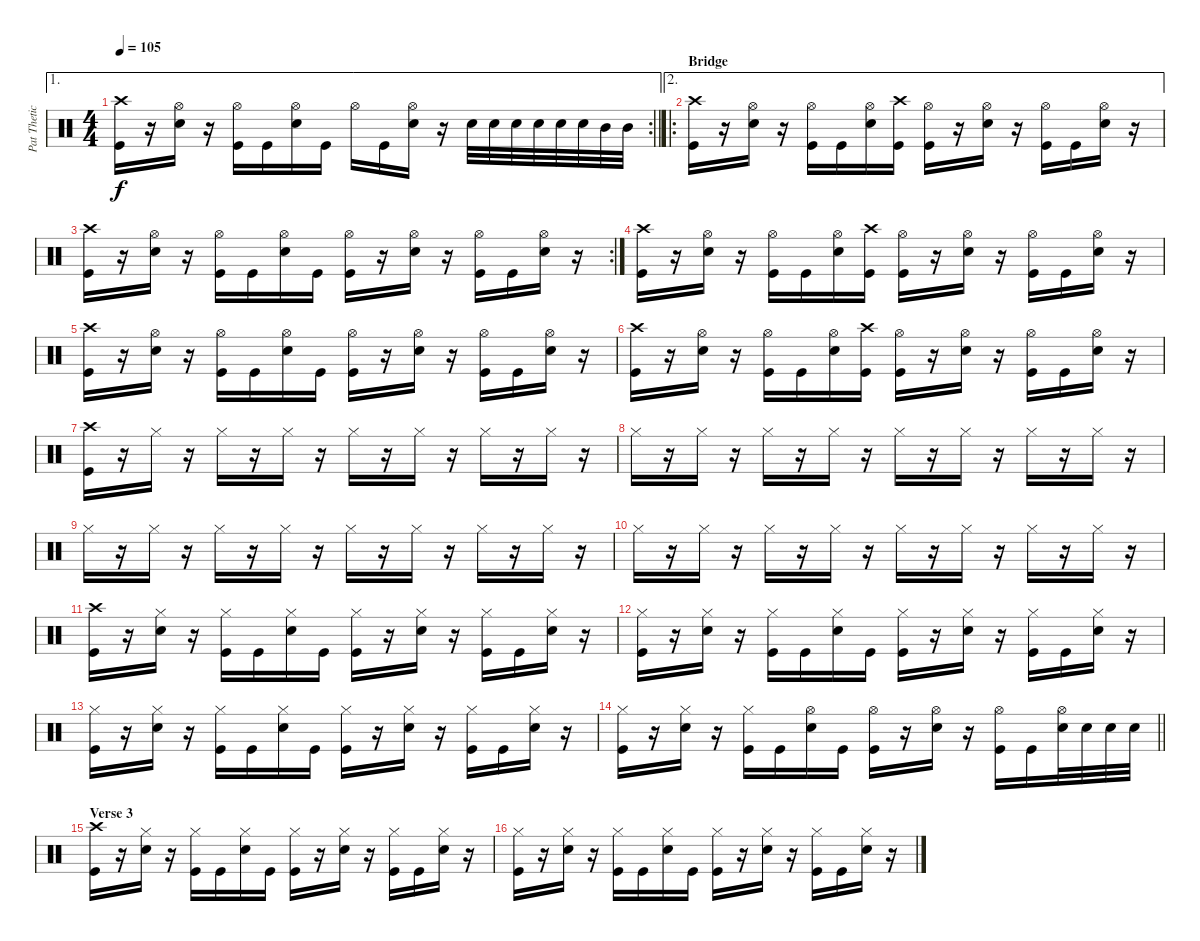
\track ("Pat Thetic" "Pat Thetic") {instrument percussion}
\staff {score}
\articulation defaults
\ae 1
\rc 2
\ts (4 4)
\tempo 105
\clef neutral
\barLineRight lightlight
\ks c
("Crash high (hit)" "Kick (hit)").16{dy f} r.16 ("Hi-Hat (open)" "Snare (hit) 2").16 r.16 ("Hi-Hat (open)" "Kick (hit)").16 "Kick (hit)".16 ("Hi-Hat (open)" "Snare (hit) 2").16 "Kick (hit)".16 "Hi-Hat (open)".16 "Kick (hit)".16 ("Hi-Hat (open)" "Snare (hit) 2").16 r.16 "Snare (hit) 2".32 "Snare (hit) 2".32 "Snare (hit) 2".32 "Electric Snare (hit)".32 "Electric Snare (hit)".32 "Electric Snare (hit)".32 "Mid Tom (hit)".32 "Mid Tom (hit)".32 |
\ae 2
\ro
\section ("" "Bridge")
("Crash high (hit)" "Kick (hit)").16 r.16 ("Hi-Hat (open)" "Snare (hit) 2").16 r.16 ("Hi-Hat (open)" "Kick (hit)").16 "Kick (hit)".16 ("Hi-Hat (open)" "Snare (hit) 2").16 ("Crash high (hit)" "Kick (hit)").16 ("Hi-Hat (open)" "Kick (hit)").16 r.16 ("Hi-Hat (open)" "Snare (hit) 2").16 r.16 ("Hi-Hat (open)" "Kick (hit)").16 "Kick (hit)".16 ("Hi-Hat (open)" "Snare (hit) 2").16 r.16 |
\rc 2
("Crash high (hit)" "Kick (hit)").16 r.16 ("Hi-Hat (open)" "Snare (hit) 2").16 r.16 ("Hi-Hat (open)" "Kick (hit)").16 "Kick (hit)".16 ("Hi-Hat (open)" "Snare (hit) 2").16 "Kick (hit)".16 ("Hi-Hat (open)" "Kick (hit)").16 r.16 ("Hi-Hat (open)" "Snare (hit) 2").16 r.16 ("Hi-Hat (open)" "Kick (hit)").16 "Kick (hit)".16 ("Hi-Hat (open)" "Snare (hit) 2").16 r.16 |
("Crash high (hit)" "Kick (hit)").16 r.16 ("Hi-Hat (open)" "Snare (hit) 2").16 r.16 ("Hi-Hat (open)" "Kick (hit)").16 "Kick (hit)".16 ("Hi-Hat (open)" "Snare (hit) 2").16 ("Crash high (hit)" "Kick (hit)").16 ("Hi-Hat (open)" "Kick (hit)").16 r.16 ("Hi-Hat (open)" "Snare (hit) 2").16 r.16 ("Hi-Hat (open)" "Kick (hit)").16 "Kick (hit)".16 ("Hi-Hat (open)" "Snare (hit) 2").16 r.16 |
("Crash high (hit)" "Kick (hit)").16 r.16 ("Hi-Hat (open)" "Snare (hit) 2").16 r.16 ("Hi-Hat (open)" "Kick (hit)").16 "Kick (hit)".16 ("Hi-Hat (open)" "Snare (hit) 2").16 "Kick (hit)".16 ("Hi-Hat (open)" "Kick (hit)").16 r.16 ("Hi-Hat (open)" "Snare (hit) 2").16 r.16 ("Hi-Hat (open)" "Kick (hit)").16 "Kick (hit)".16 ("Hi-Hat (open)" "Snare (hit) 2").16 r.16 |
("Crash high (hit)" "Kick (hit)").16 r.16 ("Hi-Hat (open)" "Snare (hit) 2").16 r.16 ("Hi-Hat (open)" "Kick (hit)").16 "Kick (hit)".16 ("Hi-Hat (open)" "Snare (hit) 2").16 ("Crash high (hit)" "Kick (hit)").16 ("Hi-Hat (open)" "Kick (hit)").16 r.16 ("Hi-Hat (open)" "Snare (hit) 2").16 r.16 ("Hi-Hat (open)" "Kick (hit)").16 "Kick (hit)".16 ("Hi-Hat (open)" "Snare (hit) 2").16 r.16 |
("Crash high (hit)" "Kick (hit)").16 r.16 "Hi-Hat (closed)".16 r.16 "Hi-Hat (closed)".16 r.16 "Hi-Hat (closed)".16 r.16 "Hi-Hat (closed)".16 r.16 "Hi-Hat (closed)".16 r.16 "Hi-Hat (closed)".16 r.16 "Hi-Hat (closed)".16 r.16 |
"Hi-Hat (closed)".16 r.16 "Hi-Hat (closed)".16 r.16 "Hi-Hat (closed)".16 r.16 "Hi-Hat (closed)".16 r.16 "Hi-Hat (closed)".16 r.16 "Hi-Hat (closed)".16 r.16 "Hi-Hat (closed)".16 r.16 "Hi-Hat (closed)".16 r.16 |
"Hi-Hat (closed)".16 r.16 "Hi-Hat (closed)".16 r.16 "Hi-Hat (closed)".16 r.16 "Hi-Hat (closed)".16 r.16 "Hi-Hat (closed)".16 r.16 "Hi-Hat (closed)".16 r.16 "Hi-Hat (closed)".16 r.16 "Hi-Hat (closed)".16 r.16 |
"Hi-Hat (closed)".16 r.16 "Hi-Hat (closed)".16 r.16 "Hi-Hat (closed)".16 r.16 "Hi-Hat (closed)".16 r.16 "Hi-Hat (closed)".16 r.16 "Hi-Hat (closed)".16 r.16 "Hi-Hat (closed)".16 r.16 "Hi-Hat (closed)".16 r.16 |
("Crash high (hit)" "Kick (hit)").16 r.16 ("Hi-Hat (closed)" "Snare (hit) 2").16 r.16 ("Hi-Hat (closed)" "Kick (hit)").16 "Kick (hit)".16 ("Hi-Hat (closed)" "Snare (hit) 2").16 "Kick (hit)".16 ("Hi-Hat (closed)" "Kick (hit)").16 r.16 ("Hi-Hat (closed)" "Snare (hit) 2").16 r.16 ("Hi-Hat (closed)" "Kick (hit)").16 "Kick (hit)".16 ("Hi-Hat (closed)" "Snare (hit) 2").16 r.16 |
("Hi-Hat (closed)" "Kick (hit)").16 r.16 ("Hi-Hat (closed)" "Snare (hit) 2").16 r.16 ("Hi-Hat (closed)" "Kick (hit)").16 "Kick (hit)".16 ("Hi-Hat (closed)" "Snare (hit) 2").16 "Kick (hit)".16 ("Hi-Hat (closed)" "Kick (hit)").16 r.16 ("Hi-Hat (closed)" "Snare (hit) 2").16 r.16 ("Hi-Hat (closed)" "Kick (hit)").16 "Kick (hit)".16 ("Hi-Hat (closed)" "Snare (hit) 2").16 r.16 |
("Hi-Hat (closed)" "Kick (hit)").16 r.16 ("Hi-Hat (closed)" "Snare (hit) 2").16 r.16 ("Hi-Hat (closed)" "Kick (hit)").16 "Kick (hit)".16 ("Hi-Hat (closed)" "Snare (hit) 2").16 "Kick (hit)".16 ("Hi-Hat (closed)" "Kick (hit)").16 r.16 ("Hi-Hat (closed)" "Snare (hit) 2").16 r.16 ("Hi-Hat (closed)" "Kick (hit)").16 "Kick (hit)".16 ("Hi-Hat (closed)" "Snare (hit) 2").16 r.16 |
\barLineRight lightlight
("Hi-Hat (closed)" "Kick (hit)").16 r.16 ("Hi-Hat (closed)" "Snare (hit) 2").16 r.16 ("Hi-Hat (closed)" "Kick (hit)").16 "Kick (hit)".16 ("Hi-Hat (open)" "Snare (hit) 2").16 "Kick (hit)".16 ("Hi-Hat (open)" "Kick (hit)").16 r.16 ("Hi-Hat (open)" "Snare (hit) 2").16 r.16 ("Hi-Hat (open)" "Kick (hit)").16 "Kick (hit)".16 ("Hi-Hat (open)" "Snare (hit) 2").32 "Snare (hit) 2".32 "Snare (hit) 2".32 "Snare (hit) 2".32 |
\section ("" "Verse 3")
("Crash high (hit)" "Kick (hit)").16 r.16 ("Hi-Hat (closed)" "Snare (hit) 2").16 r.16 ("Hi-Hat (closed)" "Kick (hit)").16 "Kick (hit)".16 ("Hi-Hat (closed)" "Snare (hit) 2").16 "Kick (hit)".16 ("Hi-Hat (closed)" "Kick (hit)").16 r.16 ("Hi-Hat (closed)" "Snare (hit) 2").16 r.16 ("Hi-Hat (closed)" "Kick (hit)").16 "Kick (hit)".16 ("Hi-Hat (closed)" "Snare (hit) 2").16 r.16 |
("Hi-Hat (closed)" "Kick (hit)").16 r.16 ("Hi-Hat (closed)" "Snare (hit) 2").16 r.16 ("Hi-Hat (closed)" "Kick (hit)").16 "Kick (hit)".16 ("Hi-Hat (closed)" "Snare (hit) 2").16 "Kick (hit)".16 ("Hi-Hat (closed)" "Kick (hit)").16 r.16 ("Hi-Hat (closed)" "Snare (hit) 2").16 r.16 ("Hi-Hat (closed)" "Kick (hit)").16 "Kick (hit)".16 ("Hi-Hat (closed)" "Snare (hit) 2").16 r.16
